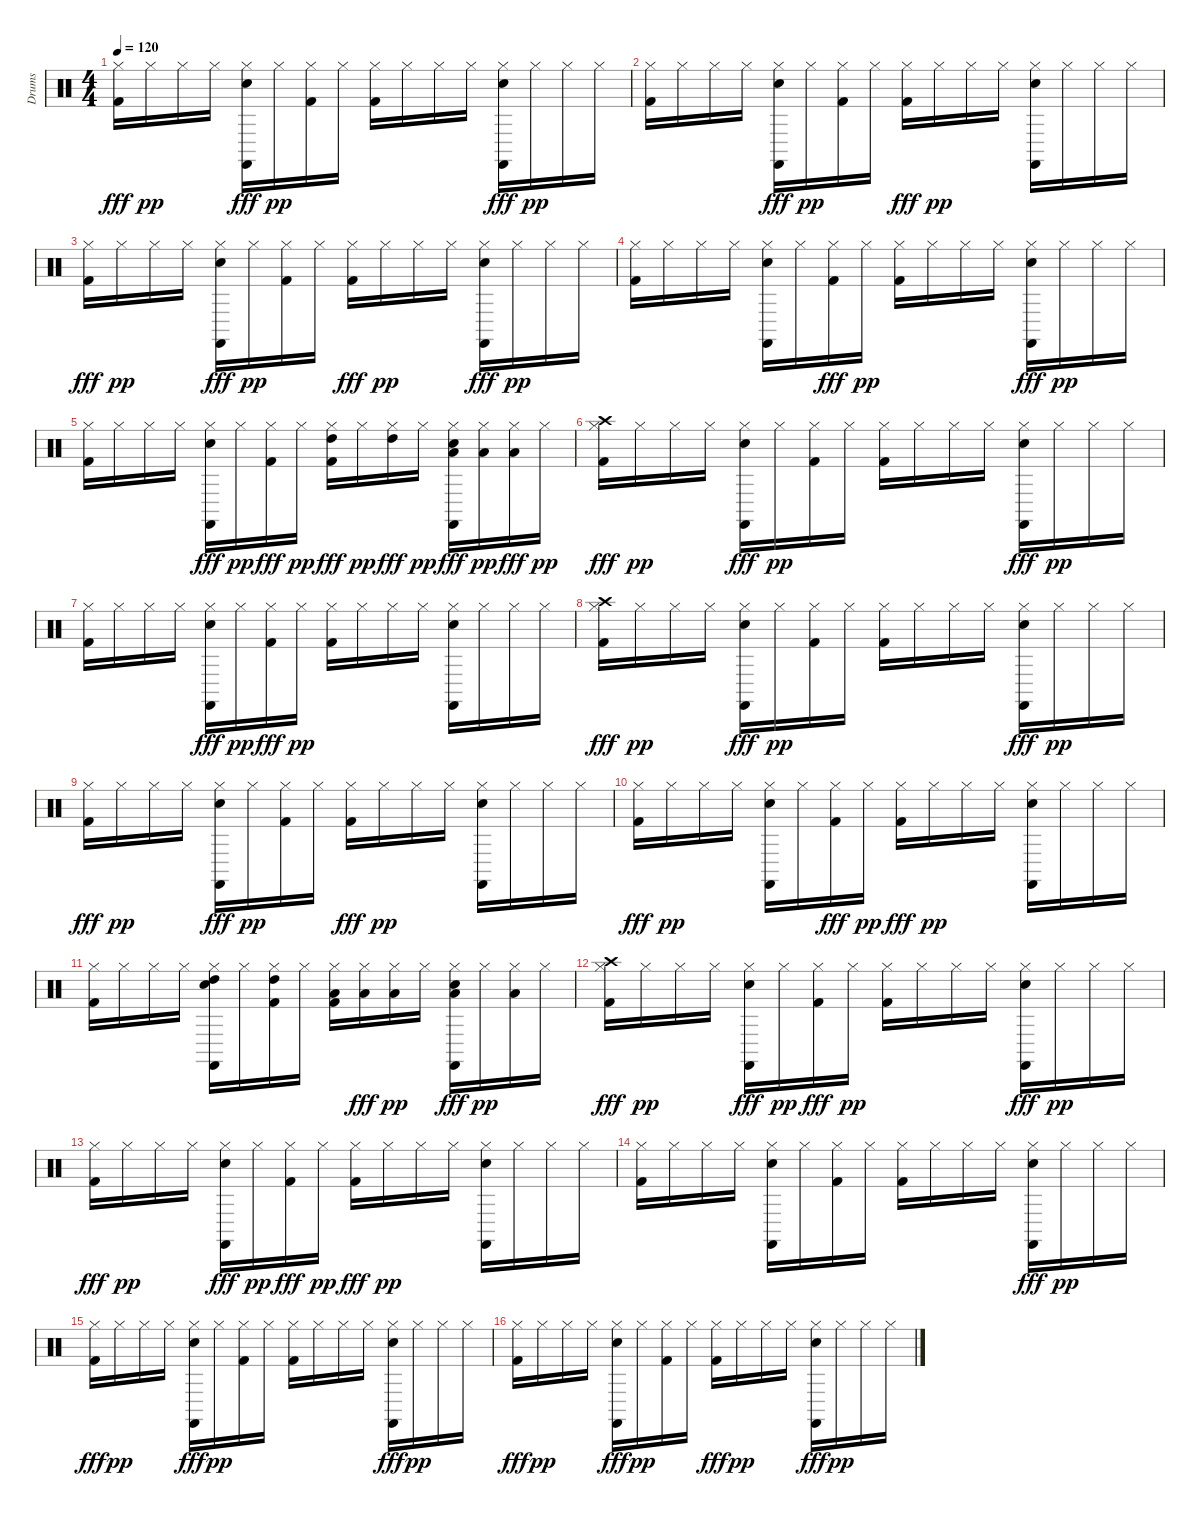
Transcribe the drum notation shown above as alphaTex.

\track ("Drums" "Drums") {instrument percussion}
\staff {score}
\articulation defaults
\ts (4 4)
\tempo 120
\clef neutral
\ks c
("Hi-Hat (closed)" "Kick (hit) 2").16{dy fff} "Hi-Hat (closed)".16{dy pp} "Hi-Hat (closed)".16 "Hi-Hat (closed)".16 ("Castanets (hit)" "Hi-Hat (closed)" "Snare (hit) 2").16{dy fff} "Hi-Hat (closed)".16{dy pp} ("Kick (hit) 2" "Hi-Hat (closed)").16 "Hi-Hat (closed)".16 ("Kick (hit) 2" "Hi-Hat (closed)").16 "Hi-Hat (closed)".16 "Hi-Hat (closed)".16 "Hi-Hat (closed)".16 ("Castanets (hit)" "Hi-Hat (closed)" "Snare (hit) 2").16{dy fff} "Hi-Hat (closed)".16{dy pp} "Hi-Hat (closed)".16 "Hi-Hat (closed)".16 |
("Kick (hit) 2" "Hi-Hat (closed)").16 "Hi-Hat (closed)".16 "Hi-Hat (closed)".16 "Hi-Hat (closed)".16 ("Snare (hit) 2" "Hi-Hat (closed)" "Castanets (hit)").16{dy fff} "Hi-Hat (closed)".16{dy pp} ("Kick (hit) 2" "Hi-Hat (closed)").16 "Hi-Hat (closed)".16 ("Hi-Hat (closed)" "Kick (hit) 2").16{dy fff} "Hi-Hat (closed)".16{dy pp} "Hi-Hat (closed)".16 "Hi-Hat (closed)".16 ("Castanets (hit)" "Snare (hit) 2" "Hi-Hat (closed)").16 "Hi-Hat (closed)".16 "Hi-Hat (closed)".16 "Hi-Hat (closed)".16 |
("Hi-Hat (closed)" "Kick (hit) 2").16{dy fff} "Hi-Hat (closed)".16{dy pp} "Hi-Hat (closed)".16 "Hi-Hat (closed)".16 ("Hi-Hat (closed)" "Castanets (hit)" "Snare (hit) 2").16{dy fff} "Hi-Hat (closed)".16{dy pp} ("Kick (hit) 2" "Hi-Hat (closed)").16 "Hi-Hat (closed)".16 ("Hi-Hat (closed)" "Kick (hit) 2").16{dy fff} "Hi-Hat (closed)".16{dy pp} "Hi-Hat (closed)".16 "Hi-Hat (closed)".16 ("Snare (hit) 2" "Hi-Hat (closed)" "Castanets (hit)").16{dy fff} "Hi-Hat (closed)".16{dy pp} "Hi-Hat (closed)".16 "Hi-Hat (closed)".16 |
("Kick (hit) 2" "Hi-Hat (closed)").16 "Hi-Hat (closed)".16 "Hi-Hat (closed)".16 "Hi-Hat (closed)".16 ("Snare (hit) 2" "Castanets (hit)" "Hi-Hat (closed)").16 "Hi-Hat (closed)".16 ("Hi-Hat (closed)" "Kick (hit) 2").16{dy fff} "Hi-Hat (closed)".16{dy pp} ("Kick (hit) 2" "Hi-Hat (closed)").16 "Hi-Hat (closed)".16 "Hi-Hat (closed)".16 "Hi-Hat (closed)".16 ("Hi-Hat (closed)" "Snare (hit) 2" "Castanets (hit)").16{dy fff} "Hi-Hat (closed)".16{dy pp} "Hi-Hat (closed)".16 "Hi-Hat (closed)".16 |
("Kick (hit) 2" "Hi-Hat (closed)").16 "Hi-Hat (closed)".16 "Hi-Hat (closed)".16 "Hi-Hat (closed)".16 ("Hi-Hat (closed)" "Castanets (hit)" "Snare (hit) 2").16{dy fff} "Hi-Hat (closed)".16{dy pp} ("Hi-Hat (closed)" "Kick (hit) 2").16{dy fff} "Hi-Hat (closed)".16{dy pp} ("Kick (hit) 2" "Hi-Hat (closed)" "High Tom (hit)").16{dy fff} "Hi-Hat (closed)".16{dy pp} ("Hi-Hat (closed)" "High Tom (hit)").16{dy fff} "Hi-Hat (closed)".16{dy pp} ("Hi-Hat (closed)" "Castanets (hit)" "Low Tom (hit)" "Snare (hit) 2").16{dy fff} ("Low Tom (hit)" "Hi-Hat (closed)").16{dy pp} ("Hi-Hat (closed)" "Low Tom (hit)").16{dy fff} "Hi-Hat (closed)".16{dy pp} |
("Hi-Hat (closed)" "Kick (hit) 2" "Crash high (hit)").16{dy fff} "Hi-Hat (closed)".16{dy pp} "Hi-Hat (closed)".16 "Hi-Hat (closed)".16 ("Hi-Hat (closed)" "Snare (hit) 2" "Castanets (hit)").16{dy fff} "Hi-Hat (closed)".16{dy pp} ("Kick (hit) 2" "Hi-Hat (closed)").16 "Hi-Hat (closed)".16 ("Kick (hit) 2" "Hi-Hat (closed)").16 "Hi-Hat (closed)".16 "Hi-Hat (closed)".16 "Hi-Hat (closed)".16 ("Hi-Hat (closed)" "Snare (hit) 2" "Castanets (hit)").16{dy fff} "Hi-Hat (closed)".16{dy pp} "Hi-Hat (closed)".16 "Hi-Hat (closed)".16 |
("Kick (hit) 2" "Hi-Hat (closed)").16 "Hi-Hat (closed)".16 "Hi-Hat (closed)".16 "Hi-Hat (closed)".16 ("Hi-Hat (closed)" "Snare (hit) 2" "Castanets (hit)").16{dy fff} "Hi-Hat (closed)".16{dy pp} ("Hi-Hat (closed)" "Kick (hit) 2").16{dy fff} "Hi-Hat (closed)".16{dy pp} ("Kick (hit) 2" "Hi-Hat (closed)").16 "Hi-Hat (closed)".16 "Hi-Hat (closed)".16 "Hi-Hat (closed)".16 ("Snare (hit) 2" "Castanets (hit)" "Hi-Hat (closed)").16 "Hi-Hat (closed)".16 "Hi-Hat (closed)".16 "Hi-Hat (closed)".16 |
("Crash high (hit)" "Hi-Hat (closed)" "Kick (hit) 2").16{dy fff} "Hi-Hat (closed)".16{dy pp} "Hi-Hat (closed)".16 "Hi-Hat (closed)".16 ("Hi-Hat (closed)" "Snare (hit) 2" "Castanets (hit)").16{dy fff} "Hi-Hat (closed)".16{dy pp} ("Kick (hit) 2" "Hi-Hat (closed)").16 "Hi-Hat (closed)".16 ("Kick (hit) 2" "Hi-Hat (closed)").16 "Hi-Hat (closed)".16 "Hi-Hat (closed)".16 "Hi-Hat (closed)".16 ("Hi-Hat (closed)" "Snare (hit) 2" "Castanets (hit)").16{dy fff} "Hi-Hat (closed)".16{dy pp} "Hi-Hat (closed)".16 "Hi-Hat (closed)".16 |
("Hi-Hat (closed)" "Kick (hit) 2").16{dy fff} "Hi-Hat (closed)".16{dy pp} "Hi-Hat (closed)".16 "Hi-Hat (closed)".16 ("Snare (hit) 2" "Hi-Hat (closed)" "Castanets (hit)").16{dy fff} "Hi-Hat (closed)".16{dy pp} ("Kick (hit) 2" "Hi-Hat (closed)").16 "Hi-Hat (closed)".16 ("Hi-Hat (closed)" "Kick (hit) 2").16{dy fff} "Hi-Hat (closed)".16{dy pp} "Hi-Hat (closed)".16 "Hi-Hat (closed)".16 ("Castanets (hit)" "Snare (hit) 2" "Hi-Hat (closed)").16 "Hi-Hat (closed)".16 "Hi-Hat (closed)".16 "Hi-Hat (closed)".16 |
("Hi-Hat (closed)" "Kick (hit) 2").16{dy fff} "Hi-Hat (closed)".16{dy pp} "Hi-Hat (closed)".16 "Hi-Hat (closed)".16 ("Snare (hit) 2" "Castanets (hit)" "Hi-Hat (closed)").16 "Hi-Hat (closed)".16 ("Hi-Hat (closed)" "Kick (hit) 2").16{dy fff} "Hi-Hat (closed)".16{dy pp} ("Hi-Hat (closed)" "Kick (hit) 2").16{dy fff} "Hi-Hat (closed)".16{dy pp} "Hi-Hat (closed)".16 "Hi-Hat (closed)".16 ("Castanets (hit)" "Snare (hit) 2" "Hi-Hat (closed)").16 "Hi-Hat (closed)".16 "Hi-Hat (closed)".16 "Hi-Hat (closed)".16 |
("Kick (hit) 2" "Hi-Hat (closed)").16 "Hi-Hat (closed)".16 "Hi-Hat (closed)".16 "Hi-Hat (closed)".16 ("High Tom (hit)" "Snare (hit) 2" "Castanets (hit)" "Hi-Hat (closed)").16 "Hi-Hat (closed)".16 ("Kick (hit) 2" "High Tom (hit)" "Hi-Hat (closed)").16 "Hi-Hat (closed)".16 ("Kick (hit) 2" "Low Tom (hit)" "Hi-Hat (closed)").16 ("Hi-Hat (closed)" "Low Tom (hit)").16{dy fff} ("Low Tom (hit)" "Hi-Hat (closed)").16{dy pp} "Hi-Hat (closed)".16 ("Low Floor Tom (hit)" "Hi-Hat (closed)" "Snare (hit) 2" "Castanets (hit)").16{dy fff} "Hi-Hat (closed)".16{dy pp} ("Low Floor Tom (hit)" "Hi-Hat (closed)").16 "Hi-Hat (closed)".16 |
("Kick (hit) 2" "Hi-Hat (closed)" "Crash high (hit)").16{dy fff} "Hi-Hat (closed)".16{dy pp} "Hi-Hat (closed)".16 "Hi-Hat (closed)".16 ("Snare (hit) 2" "Hi-Hat (closed)" "Castanets (hit)").16{dy fff} "Hi-Hat (closed)".16{dy pp} ("Hi-Hat (closed)" "Kick (hit) 2").16{dy fff} "Hi-Hat (closed)".16{dy pp} ("Kick (hit) 2" "Hi-Hat (closed)").16 "Hi-Hat (closed)".16 "Hi-Hat (closed)".16 "Hi-Hat (closed)".16 ("Snare (hit) 2" "Hi-Hat (closed)" "Castanets (hit)").16{dy fff} "Hi-Hat (closed)".16{dy pp} "Hi-Hat (closed)".16 "Hi-Hat (closed)".16 |
("Hi-Hat (closed)" "Kick (hit) 2").16{dy fff} "Hi-Hat (closed)".16{dy pp} "Hi-Hat (closed)".16 "Hi-Hat (closed)".16 ("Hi-Hat (closed)" "Castanets (hit)" "Snare (hit) 2").16{dy fff} "Hi-Hat (closed)".16{dy pp} ("Hi-Hat (closed)" "Kick (hit) 2").16{dy fff} "Hi-Hat (closed)".16{dy pp} ("Hi-Hat (closed)" "Kick (hit) 2").16{dy fff} "Hi-Hat (closed)".16{dy pp} "Hi-Hat (closed)".16 "Hi-Hat (closed)".16 ("Castanets (hit)" "Snare (hit) 2" "Hi-Hat (closed)").16 "Hi-Hat (closed)".16 "Hi-Hat (closed)".16 "Hi-Hat (closed)".16 |
("Kick (hit) 2" "Hi-Hat (closed)").16 "Hi-Hat (closed)".16 "Hi-Hat (closed)".16 "Hi-Hat (closed)".16 ("Snare (hit) 2" "Castanets (hit)" "Hi-Hat (closed)").16 "Hi-Hat (closed)".16 ("Kick (hit) 2" "Hi-Hat (closed)").16 "Hi-Hat (closed)".16 ("Kick (hit) 2" "Hi-Hat (closed)").16 "Hi-Hat (closed)".16 "Hi-Hat (closed)".16 "Hi-Hat (closed)".16 ("Snare (hit) 2" "Hi-Hat (closed)" "Castanets (hit)").16{dy fff} "Hi-Hat (closed)".16{dy pp} "Hi-Hat (closed)".16 "Hi-Hat (closed)".16 |
("Hi-Hat (closed)" "Kick (hit) 2").16{dy fff} "Hi-Hat (closed)".16{dy pp} "Hi-Hat (closed)".16 "Hi-Hat (closed)".16 ("Hi-Hat (closed)" "Castanets (hit)" "Snare (hit) 2").16{dy fff} "Hi-Hat (closed)".16{dy pp} ("Kick (hit) 2" "Hi-Hat (closed)").16 "Hi-Hat (closed)".16 ("Kick (hit) 2" "Hi-Hat (closed)").16 "Hi-Hat (closed)".16 "Hi-Hat (closed)".16 "Hi-Hat (closed)".16 ("Snare (hit) 2" "Hi-Hat (closed)" "Castanets (hit)").16{dy fff} "Hi-Hat (closed)".16{dy pp} "Hi-Hat (closed)".16 "Hi-Hat (closed)".16 |
("Hi-Hat (closed)" "Kick (hit) 2").16{dy fff} "Hi-Hat (closed)".16{dy pp} "Hi-Hat (closed)".16 "Hi-Hat (closed)".16 ("Snare (hit) 2" "Hi-Hat (closed)" "Castanets (hit)").16{dy fff} "Hi-Hat (closed)".16{dy pp} ("Kick (hit) 2" "Hi-Hat (closed)").16 "Hi-Hat (closed)".16 ("Hi-Hat (closed)" "Kick (hit) 2").16{dy fff} "Hi-Hat (closed)".16{dy pp} "Hi-Hat (closed)".16 "Hi-Hat (closed)".16 ("Hi-Hat (closed)" "Castanets (hit)" "Snare (hit) 2").16{dy fff} "Hi-Hat (closed)".16{dy pp} "Hi-Hat (closed)".16 "Hi-Hat (closed)".16
